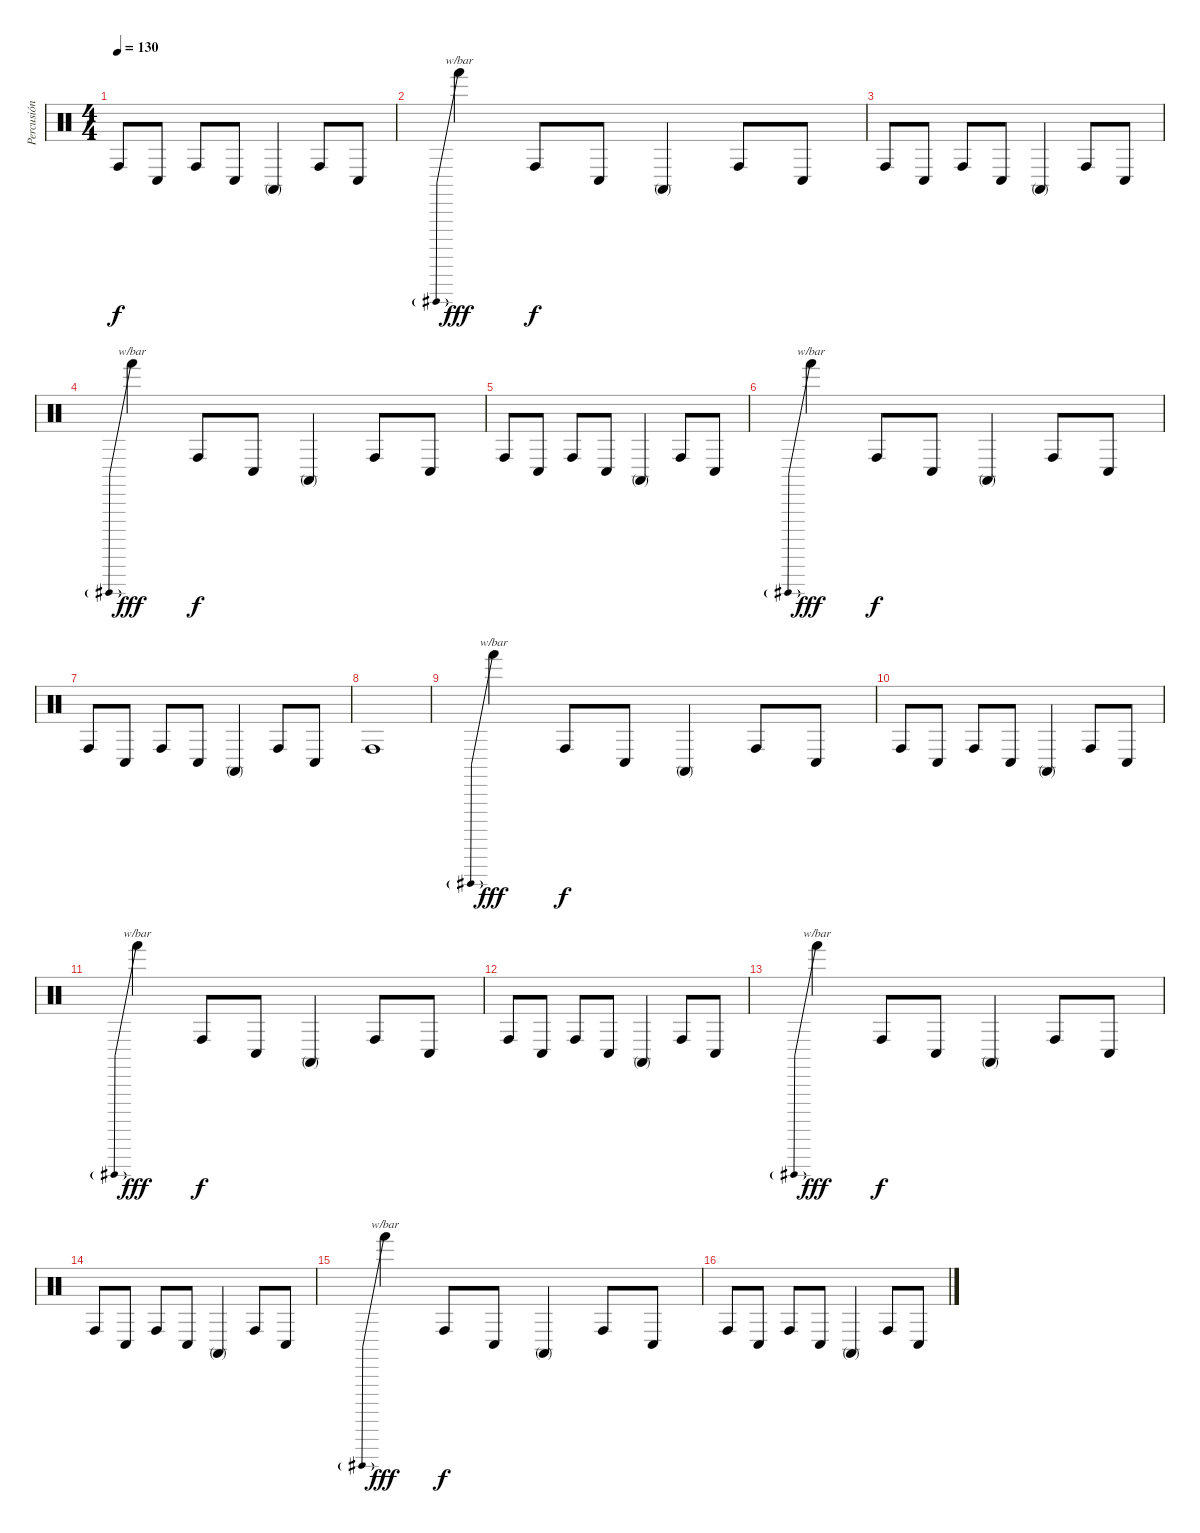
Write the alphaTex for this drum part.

\track ("Percusión" "Percusión") {instrument percussion}
\staff {score}
\articulation defaults
\ts (4 4)
\tempo 130
\clef neutral
\ks c "Conga high (hit)".8{dy f} "Conga low (hit)".8 "Conga high (hit)".8 "Conga low (hit)".8 "Conga high (mute)".4 "Conga high (hit)".8 "Conga low (hit)".8
|
"Hand (hit)".4{tbe (predive default 0 -8 60 -8) dy fff} "Conga high (hit)".8{dy f} "Conga low (hit)".8 "Conga high (mute)".4 "Conga high (hit)".8 "Conga low (hit)".8 |
"Conga high (hit)".8 "Conga low (hit)".8 "Conga high (hit)".8 "Conga low (hit)".8 "Conga high (mute)".4 "Conga high (hit)".8 "Conga low (hit)".8 |
"Hand (hit)".4{tbe (predive default 0 -8 60 -8) dy fff} "Conga high (hit)".8{dy f} "Conga low (hit)".8 "Conga high (mute)".4 "Conga high (hit)".8 "Conga low (hit)".8 |
"Conga high (hit)".8 "Conga low (hit)".8 "Conga high (hit)".8 "Conga low (hit)".8 "Conga high (mute)".4 "Conga high (hit)".8 "Conga low (hit)".8 |
"Hand (hit)".4{tbe (predive default 0 -8 60 -8) dy fff} "Conga high (hit)".8{dy f} "Conga low (hit)".8 "Conga high (mute)".4 "Conga high (hit)".8 "Conga low (hit)".8 |
"Conga high (hit)".8 "Conga low (hit)".8 "Conga high (hit)".8 "Conga low (hit)".8 "Conga high (mute)".4 "Conga high (hit)".8 "Conga low (hit)".8 |
"Conga high (hit)".1 |
"Hand (hit)".4{tbe (predive default 0 -8 60 -8) dy fff} "Conga high (hit)".8{dy f} "Conga low (hit)".8 "Conga high (mute)".4 "Conga high (hit)".8 "Conga low (hit)".8 |
"Conga high (hit)".8 "Conga low (hit)".8 "Conga high (hit)".8 "Conga low (hit)".8 "Conga high (mute)".4 "Conga high (hit)".8 "Conga low (hit)".8 |
"Hand (hit)".4{tbe (predive default 0 -8 60 -8) dy fff} "Conga high (hit)".8{dy f} "Conga low (hit)".8 "Conga high (mute)".4 "Conga high (hit)".8 "Conga low (hit)".8 |
"Conga high (hit)".8 "Conga low (hit)".8 "Conga high (hit)".8 "Conga low (hit)".8 "Conga high (mute)".4 "Conga high (hit)".8 "Conga low (hit)".8 |
"Hand (hit)".4{tbe (predive default 0 -8 60 -8) dy fff} "Conga high (hit)".8{dy f} "Conga low (hit)".8 "Conga high (mute)".4 "Conga high (hit)".8 "Conga low (hit)".8 |
"Conga high (hit)".8 "Conga low (hit)".8 "Conga high (hit)".8 "Conga low (hit)".8 "Conga high (mute)".4 "Conga high (hit)".8 "Conga low (hit)".8 |
"Hand (hit)".4{tbe (predive default 0 -8 60 -8) dy fff} "Conga high (hit)".8{dy f} "Conga low (hit)".8 "Conga high (mute)".4 "Conga high (hit)".8 "Conga low (hit)".8 |
"Conga high (hit)".8 "Conga low (hit)".8 "Conga high (hit)".8 "Conga low (hit)".8 "Conga high (mute)".4 "Conga high (hit)".8 "Conga low (hit)".8
